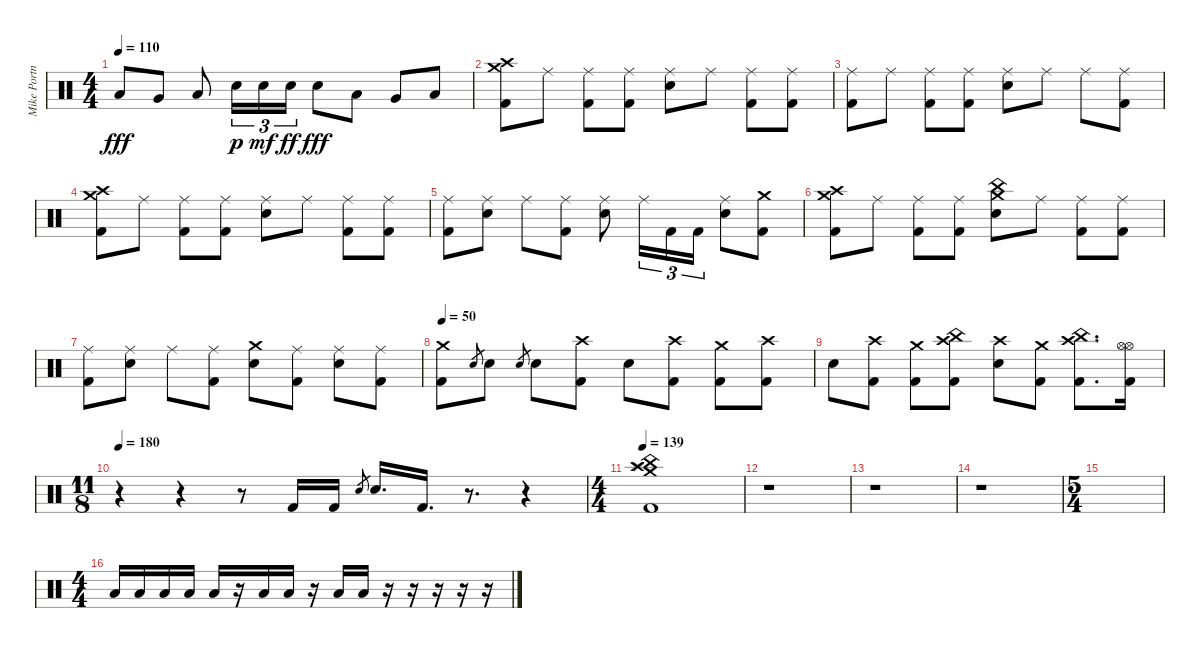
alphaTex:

\track ("Mike Portnoy" "Mike Portn") {instrument percussion}
\staff {score}
\articulation defaults
\ts (4 4)
\tempo 110
\clef neutral
\ks c "Low Tom (hit)".8{dy fff} "Very Low Tom (hit)".8 "Low Floor Tom (hit)".8 "Electric Snare (hit)".16{tu (3 2) dy p} "Electric Snare (hit)".16{tu (3 2) dy mf} "Electric Snare (hit)".16{tu (3 2) dy ff} "Electric Snare (hit)".8{dy fff} "Low Tom (hit)".8 "Very Low Tom (hit)".8 "Low Floor Tom (hit)".8
|
("Crash medium (hit)" "Crash high (hit)" "Kick (hit) 2").8 "Ride (middle)".8 ("Ride (middle)" "Kick (hit) 2").8 ("Ride (middle)" "Kick (hit) 2").8 ("Ride (middle)" "Electric Snare (hit)").8 "Ride (middle)".8 ("Ride (middle)" "Kick (hit) 2").8 ("Ride (middle)" "Kick (hit) 2").8 |
("Ride (middle)" "Kick (hit) 2").8 "Ride (middle)".8 ("Ride (middle)" "Kick (hit) 2").8 ("Ride (middle)" "Kick (hit) 2").8 ("Ride (middle)" "Electric Snare (hit)").8 "Ride (middle)".8 "Ride (middle)".8 ("Ride (middle)" "Kick (hit) 2").8 |
("Crash medium (hit)" "Crash high (hit)" "Kick (hit) 2").8 "Ride (middle)".8 ("Ride (middle)" "Kick (hit) 2").8 ("Ride (middle)" "Kick (hit) 2").8 ("Ride (middle)" "Electric Snare (hit)").8 "Ride (middle)".8 ("Ride (middle)" "Kick (hit) 2").8 ("Ride (middle)" "Kick (hit) 2").8 |
("Ride (middle)" "Kick (hit) 2").8 ("Ride (middle)" "Electric Snare (hit)").8 "Ride (middle)".8 ("Ride (middle)" "Kick (hit) 2").8 ("Ride (middle)" "Electric Snare (hit)").8 "Ride (middle)".16{tu (3 2)} "Kick (hit) 2".16{tu (3 2)} "Kick (hit) 2".16{tu (3 2)} ("Ride (middle)" "Electric Snare (hit)").8 ("Crash medium (hit)" "Kick (hit) 2").8 |
("Crash medium (hit)" "Crash high (hit)" "Kick (hit) 2").8 "Ride (middle)".8 ("Ride (middle)" "Kick (hit) 2").8 ("Ride (middle)" "Kick (hit) 2").8 ("Crash medium (hit)" "China (hit)" "Electric Snare (hit)").8 "Ride (middle)".8 ("Ride (middle)" "Kick (hit) 2").8 ("Ride (middle)" "Kick (hit) 2").8 |
("Ride (middle)" "Kick (hit) 2").8 ("Ride (middle)" "Electric Snare (hit)").8 "Ride (middle)".8 ("Ride (middle)" "Kick (hit) 2").8 ("Crash medium (hit)" "Electric Snare (hit)").8 ("Ride (middle)" "Kick (hit) 2").8 ("Ride (middle)" "Electric Snare (hit)").8 ("Ride (middle)" "Kick (hit) 2").8 |
\tempo 50
("Crash medium (hit)" "Kick (hit) 2").8 "Electric Snare (hit)".8{gr} "Electric Snare (hit)".8 "Electric Snare (hit)".8{gr} "Electric Snare (hit)".8 ("Crash high (hit)" "Kick (hit) 2").8 "Electric Snare (hit)".8 ("Crash high (hit)" "Kick (hit) 2").8 ("Crash medium (hit)" "Kick (hit) 2").8 ("Crash high (hit)" "Kick (hit) 2").8 |
"Electric Snare (hit)".8 ("Crash high (hit)" "Kick (hit) 2").8 ("Crash medium (hit)" "Kick (hit) 2").8 ("Crash high (hit)" "China (hit)" "Kick (hit) 2").8 ("Crash high (hit)" "Electric Snare (hit)").8 ("Crash medium (hit)" "Kick (hit) 2").8 ("Crash high (hit)" "China (hit)" "Kick (hit) 2").8{d} ("Hi-Hat (open)" "Hi-Hat (open)" "Kick (hit) 2").16 |
\ts (11 8)
\tempo 180
r.4 r.4 r.8 "Kick (hit) 2".16 "Kick (hit) 2".16 "Electric Snare (hit)".8{gr} "Electric Snare (hit)".16{d} "Kick (hit) 2".16{d} r.8{d} r.4 |
\ts (4 4)
\tempo 139
("Crash high (hit)" "Crash medium (hit)" "Splash (hit)" "China (hit)" "Kick (hit) 2").1 |
r.1 |
r.1 |
r.1 |
\ts (5 4)
|
\ts (4 4)
"Low Floor Tom (hit)".16{volume 7 balance 16} "Low Floor Tom (hit)".16 "Low Floor Tom (hit)".16 "Low Floor Tom (hit)".16 "Low Floor Tom (hit)".16 r.16 "Low Floor Tom (hit)".16 "Low Floor Tom (hit)".16 r.16 "Low Floor Tom (hit)".16 "Low Floor Tom (hit)".16 r.16 r.16 r.16 r.16 r.16
